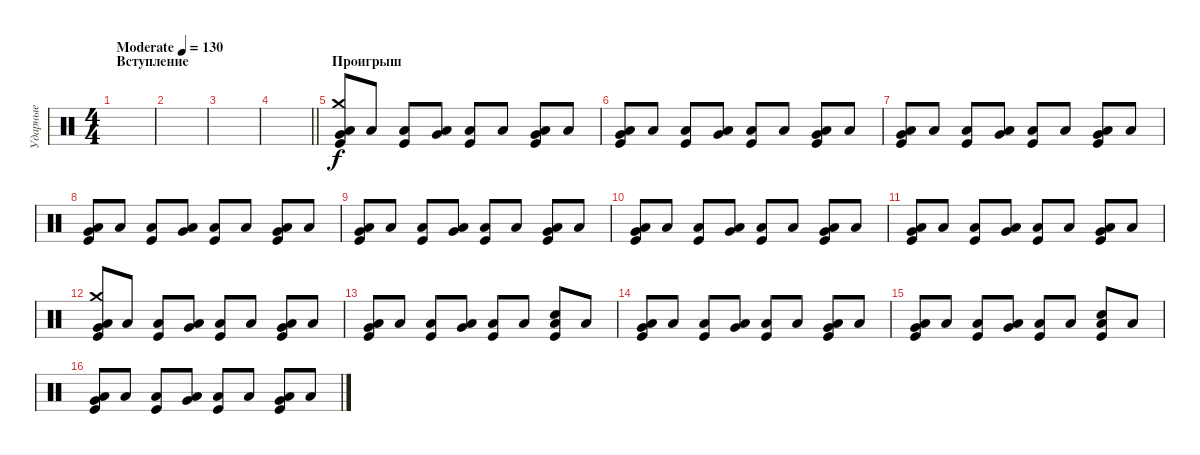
\track ("Ударные" "Ударные") {instrument percussion}
\staff {score}
\articulation defaults
\ts (4 4)
\section ("" "Вступление")
\tempo (130 "Moderate")
\clef neutral
\ks c
|
|
|
\barLineRight lightlight
|
\section ("" "Проигрыш")
("Kick (hit)" "Crash medium (hit)" "Low Tom (hit)" "Very Low Tom (hit)").8 "Low Tom (hit)".8 ("Kick (hit)" "Low Tom (hit)").8 ("Low Tom (hit)" "Very Low Tom (hit)").8 ("Kick (hit)" "Low Tom (hit)").8 "Low Tom (hit)".8 ("Kick (hit)" "Low Tom (hit)" "Very Low Tom (hit)").8 "Low Tom (hit)".8 |
("Kick (hit)" "Low Tom (hit)" "Very Low Tom (hit)").8 "Low Tom (hit)".8 ("Kick (hit)" "Low Tom (hit)").8 ("Low Tom (hit)" "Very Low Tom (hit)").8 ("Kick (hit)" "Low Tom (hit)").8 "Low Tom (hit)".8 ("Kick (hit)" "Low Tom (hit)" "Very Low Tom (hit)").8 "Low Tom (hit)".8 |
("Kick (hit)" "Low Tom (hit)" "Very Low Tom (hit)").8 "Low Tom (hit)".8 ("Kick (hit)" "Low Tom (hit)").8 ("Low Tom (hit)" "Very Low Tom (hit)").8 ("Kick (hit)" "Low Tom (hit)").8 "Low Tom (hit)".8 ("Kick (hit)" "Low Tom (hit)" "Very Low Tom (hit)").8 "Low Tom (hit)".8 |
("Kick (hit)" "Low Tom (hit)" "Very Low Tom (hit)").8 "Low Tom (hit)".8 ("Kick (hit)" "Low Tom (hit)").8 ("Low Tom (hit)" "Very Low Tom (hit)").8 ("Kick (hit)" "Low Tom (hit)").8 "Low Tom (hit)".8 ("Kick (hit)" "Low Tom (hit)" "Very Low Tom (hit)").8 "Low Tom (hit)".8 |
("Kick (hit)" "Low Tom (hit)" "Very Low Tom (hit)").8 "Low Tom (hit)".8 ("Kick (hit)" "Low Tom (hit)").8 ("Low Tom (hit)" "Very Low Tom (hit)").8 ("Kick (hit)" "Low Tom (hit)").8 "Low Tom (hit)".8 ("Kick (hit)" "Low Tom (hit)" "Very Low Tom (hit)").8 "Low Tom (hit)".8 |
("Kick (hit)" "Low Tom (hit)" "Very Low Tom (hit)").8 "Low Tom (hit)".8 ("Kick (hit)" "Low Tom (hit)").8 ("Low Tom (hit)" "Very Low Tom (hit)").8 ("Kick (hit)" "Low Tom (hit)").8 "Low Tom (hit)".8 ("Kick (hit)" "Low Tom (hit)" "Very Low Tom (hit)").8 "Low Tom (hit)".8 |
("Kick (hit)" "Low Tom (hit)" "Very Low Tom (hit)").8 "Low Tom (hit)".8 ("Kick (hit)" "Low Tom (hit)").8 ("Low Tom (hit)" "Very Low Tom (hit)").8 ("Kick (hit)" "Low Tom (hit)").8 "Low Tom (hit)".8 ("Kick (hit)" "Low Tom (hit)" "Very Low Tom (hit)").8 "Low Tom (hit)".8 |
("Kick (hit)" "Crash medium (hit)" "Low Tom (hit)" "Very Low Tom (hit)").8 "Low Tom (hit)".8 ("Kick (hit)" "Low Tom (hit)").8 ("Low Tom (hit)" "Very Low Tom (hit)").8 ("Kick (hit)" "Low Tom (hit)").8 "Low Tom (hit)".8 ("Kick (hit)" "Low Tom (hit)" "Very Low Tom (hit)").8 "Low Tom (hit)".8 |
("Kick (hit)" "Low Tom (hit)" "Very Low Tom (hit)").8 "Low Tom (hit)".8 ("Kick (hit)" "Low Tom (hit)").8 ("Low Tom (hit)" "Very Low Tom (hit)").8 ("Kick (hit)" "Low Tom (hit)").8 "Low Tom (hit)".8 ("Kick (hit)" "Low Tom (hit)" "Electric Snare (hit)").8 "Low Tom (hit)".8 |
("Kick (hit)" "Low Tom (hit)" "Very Low Tom (hit)").8 "Low Tom (hit)".8 ("Kick (hit)" "Low Tom (hit)").8 ("Low Tom (hit)" "Very Low Tom (hit)").8 ("Kick (hit)" "Low Tom (hit)").8 "Low Tom (hit)".8 ("Kick (hit)" "Low Tom (hit)" "Very Low Tom (hit)").8 "Low Tom (hit)".8 |
("Kick (hit)" "Low Tom (hit)" "Very Low Tom (hit)").8 "Low Tom (hit)".8 ("Kick (hit)" "Low Tom (hit)").8 ("Low Tom (hit)" "Very Low Tom (hit)").8 ("Kick (hit)" "Low Tom (hit)").8 "Low Tom (hit)".8 ("Kick (hit)" "Low Tom (hit)" "Electric Snare (hit)").8 "Low Tom (hit)".8 |
("Kick (hit)" "Low Tom (hit)" "Very Low Tom (hit)").8 "Low Tom (hit)".8 ("Kick (hit)" "Low Tom (hit)").8 ("Low Tom (hit)" "Very Low Tom (hit)").8 ("Kick (hit)" "Low Tom (hit)").8 "Low Tom (hit)".8 ("Kick (hit)" "Low Tom (hit)" "Very Low Tom (hit)").8 "Low Tom (hit)".8
